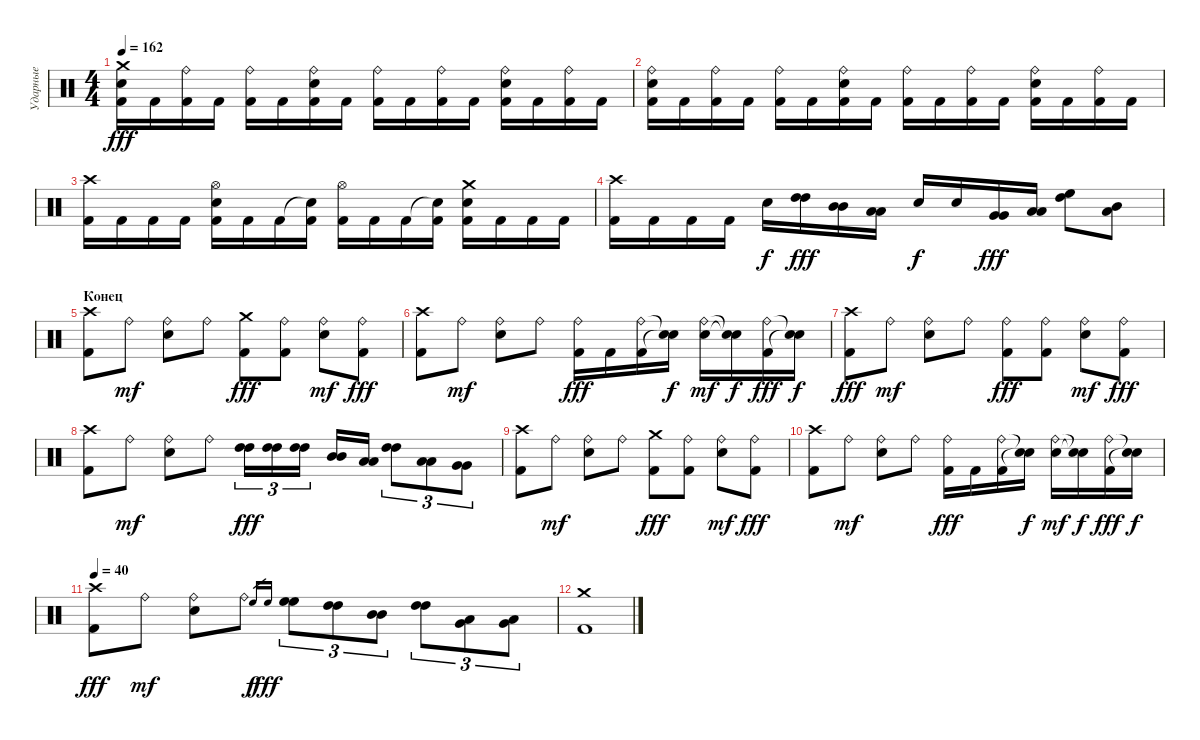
\track ("Ударные" "Ударные") {instrument percussion}
\staff {score}
\articulation defaults
\ts (4 4)
\tempo 162
\clef neutral
\ks c
("Crash medium (hit)" "Electric Snare (hit)" "Kick (hit) 2").16{dy fff} "Kick (hit) 2".16 ("Ride (bell)" "Kick (hit) 2").16 "Kick (hit) 2".16 ("Ride (bell)" "Kick (hit) 2").16 "Kick (hit) 2".16 ("Ride (bell)" "Electric Snare (hit)" "Kick (hit) 2").16 "Kick (hit) 2".16 ("Ride (bell)" "Kick (hit) 2").16 "Kick (hit) 2".16 ("Ride (bell)" "Kick (hit) 2").16 "Kick (hit) 2".16 ("Ride (bell)" "Electric Snare (hit)" "Kick (hit) 2").16 "Kick (hit) 2".16 ("Ride (bell)" "Kick (hit) 2").16 "Kick (hit) 2".16 |
("Ride (bell)" "Electric Snare (hit)" "Kick (hit) 2").16 "Kick (hit) 2".16 ("Ride (bell)" "Kick (hit) 2").16 "Kick (hit) 2".16 ("Ride (bell)" "Kick (hit) 2").16 "Kick (hit) 2".16 ("Ride (bell)" "Electric Snare (hit)" "Kick (hit) 2").16 "Kick (hit) 2".16 ("Ride (bell)" "Kick (hit) 2").16 "Kick (hit) 2".16 ("Ride (bell)" "Kick (hit) 2").16 "Kick (hit) 2".16 ("Ride (bell)" "Electric Snare (hit)" "Kick (hit) 2").16 "Kick (hit) 2".16 ("Ride (bell)" "Kick (hit) 2").16 "Kick (hit) 2".16 |
("Crash high (hit)" "Kick (hit) 2").16 "Kick (hit) 2".16 "Kick (hit) 2".16 "Kick (hit) 2".16 ("Electric Snare (hit)" "Hi-Hat (open)" "Kick (hit) 2").16 "Kick (hit) 2".16 "Kick (hit) 2".16 ("Snare (hit)"{t} "Kick (hit) 2").16 ("Hi-Hat (open)" "Kick (hit) 2").16 "Kick (hit) 2".16 "Kick (hit) 2".16 ("Snare (hit)"{t} "Kick (hit) 2").16 ("Crash medium (hit)" "Electric Snare (hit)" "Kick (hit) 2").16 "Kick (hit) 2".16 "Kick (hit) 2".16 "Kick (hit) 2".16 |
("Crash high (hit)" "Kick (hit) 2").16 "Kick (hit) 2".16 "Kick (hit) 2".16 "Kick (hit) 2".16 "Electric Snare (hit)".16{dy f} ("High Tom (hit)" "High Tom (hit)").16{dy fff} ("Mid Tom (hit)" "Mid Tom (hit)").16 ("Low Tom (hit)" "Low Tom (hit)").16 "Electric Snare (hit)".16{dy f} "Electric Snare (hit)".16 ("Very Low Tom (hit)" "Very Low Tom (hit)").16{dy fff} ("Low Floor Tom (hit)" "Low Floor Tom (hit)").16 ("High Floor Tom (hit)" "High Tom (hit)").8 ("Low Tom (hit)" "Mid Tom (hit)").8 |
\section ("" "Конец")
("Crash high (hit)" "Kick (hit) 2").8 "Ride (bell)".8{dy mf} ("Ride (bell)" "Electric Snare (hit)").8 "Ride (bell)".8 ("Crash medium (hit)" "Kick (hit) 2").8{dy fff} ("Ride (bell)" "Kick (hit) 2").8 ("Ride (bell)" "Electric Snare (hit)").8{dy mf} ("Ride (bell)" "Kick (hit) 2").8{dy fff} |
("Crash high (hit)" "Kick (hit) 2").8 "Ride (bell)".8{dy mf} ("Ride (bell)" "Electric Snare (hit)").8 "Ride (bell)".8 ("Ride (bell)" "Kick (hit) 2").16{dy fff} "Kick (hit) 2".16 ("Ride (bell)" "Kick (hit) 2").16 ("Snare (hit)"{t} "Snare (hit)"{t}).16{dy f} ("Ride (bell)" "Electric Snare (hit)").16{dy mf} ("Snare (hit)"{t} "Snare (hit)"{t}).16{dy f} ("Ride (bell)" "Kick (hit) 2").16{dy fff} ("Snare (hit)"{t} "Snare (hit)"{t}).16{dy f} |
("Crash high (hit)" "Kick (hit) 2").8{dy fff} "Ride (bell)".8{dy mf} ("Ride (bell)" "Electric Snare (hit)").8 "Ride (bell)".8 ("Ride (bell)" "Kick (hit) 2").8{dy fff} ("Ride (bell)" "Kick (hit) 2").8 ("Ride (bell)" "Electric Snare (hit)").8{dy mf} ("Ride (bell)" "Kick (hit) 2").8{dy fff} |
("Crash high (hit)" "Kick (hit) 2").8 "Ride (bell)".8{dy mf} ("Ride (bell)" "Electric Snare (hit)").8 "Ride (bell)".8 ("High Tom (hit)" "High Tom (hit)").16{tu (3 2) dy fff} ("High Tom (hit)" "High Tom (hit)").16{tu (3 2)} ("High Tom (hit)" "High Tom (hit)").16{tu (3 2)} ("Mid Tom (hit)" "Mid Tom (hit)").16 ("Low Tom (hit)" "Low Tom (hit)").16 ("High Tom (hit)" "High Tom (hit)").8{tu (3 2)} ("Low Tom (hit)" "Low Tom (hit)").8{tu (3 2)} ("Very Low Tom (hit)" "Very Low Tom (hit)").8{tu (3 2)} |
("Crash high (hit)" "Kick (hit) 2").8 "Ride (bell)".8{dy mf} ("Ride (bell)" "Electric Snare (hit)").8 "Ride (bell)".8 ("Crash medium (hit)" "Kick (hit) 2").8{dy fff} ("Ride (bell)" "Kick (hit) 2").8 ("Ride (bell)" "Electric Snare (hit)").8{dy mf} ("Ride (bell)" "Kick (hit) 2").8{dy fff} |
("Crash high (hit)" "Kick (hit) 2").8 "Ride (bell)".8{dy mf} ("Ride (bell)" "Electric Snare (hit)").8 "Ride (bell)".8 ("Ride (bell)" "Kick (hit) 2").16{dy fff} "Kick (hit) 2".16 ("Ride (bell)" "Kick (hit) 2").16 ("Snare (hit)"{t} "Snare (hit)"{t}).16{dy f} ("Ride (bell)" "Electric Snare (hit)").16{dy mf} ("Snare (hit)"{t} "Snare (hit)"{t}).16{dy f} ("Ride (bell)" "Kick (hit) 2").16{dy fff} ("Snare (hit)"{t} "Snare (hit)"{t}).16{dy f} |
\tempo 40
("Crash high (hit)" "Kick (hit) 2").8{dy fff} "Ride (bell)".8{dy mf} ("Ride (bell)" "Electric Snare (hit)").8 "Ride (bell)".8 "High Floor Tom (hit)".16{gr dy f} "High Floor Tom (hit)".16{gr dy fff} ("High Floor Tom (hit)" "High Floor Tom (hit)").8{tu (3 2)} ("High Tom (hit)" "High Tom (hit)").8{tu (3 2)} ("Mid Tom (hit)" "Mid Tom (hit)").8{tu (3 2)} ("High Tom (hit)" "High Tom (hit)").8{tu (3 2)} ("Low Tom (hit)" "Very Low Tom (hit)").8{tu (3 2)} ("Very Low Tom (hit)" "Low Floor Tom (hit)").8{tu (3 2)} |
("Crash medium (hit)" "Kick (hit) 2").1
